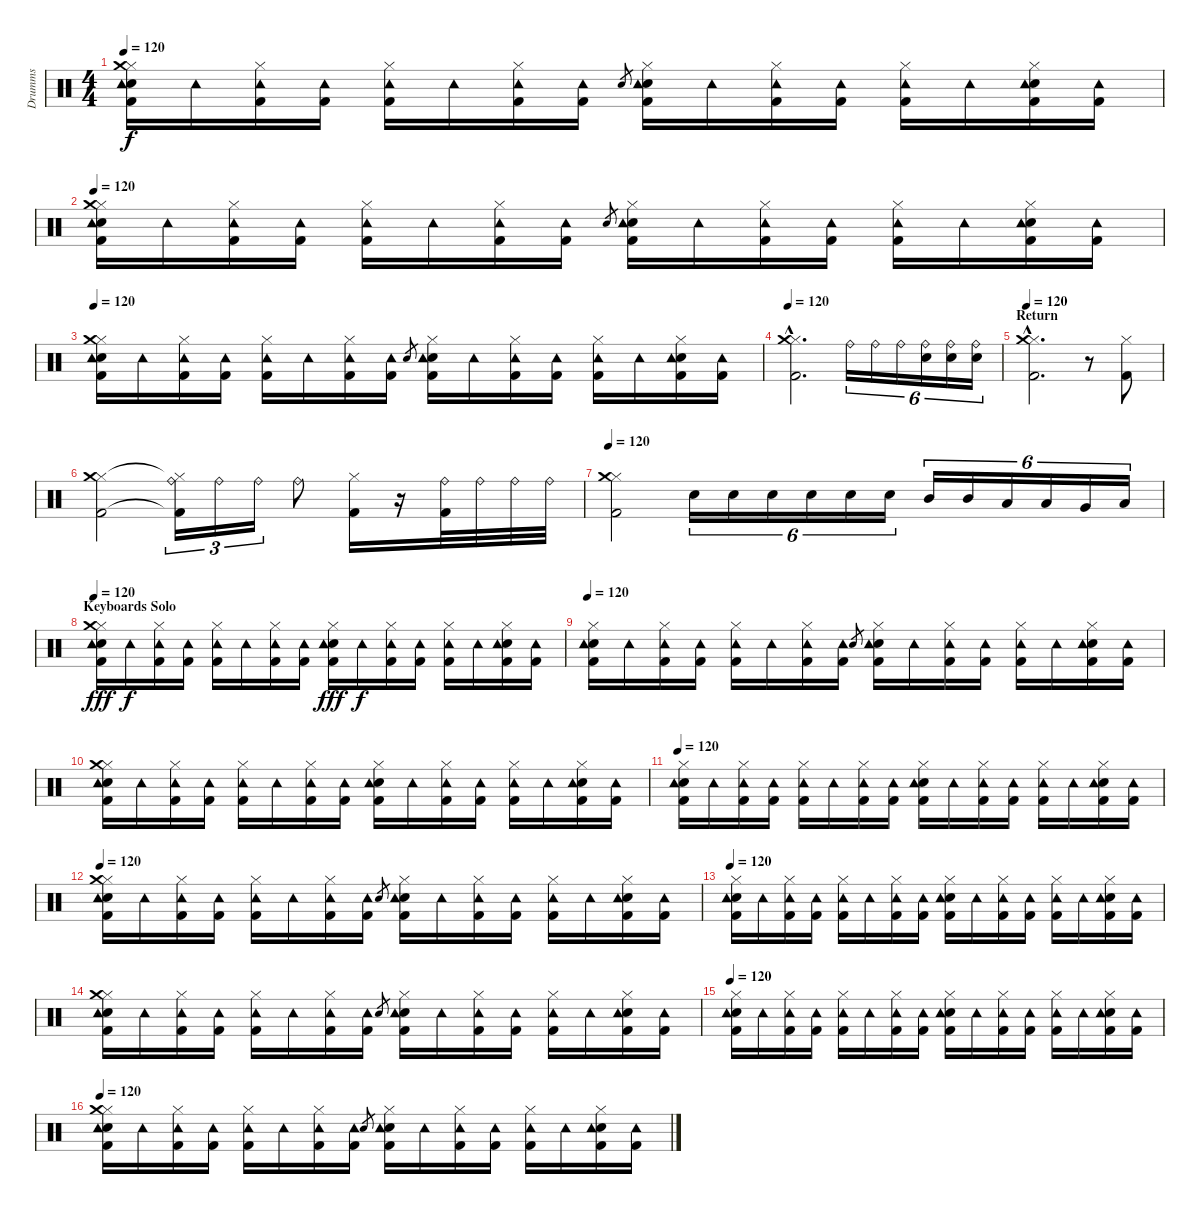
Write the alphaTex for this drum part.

\track ("Drumms" "Drumms") {instrument percussion}
\staff {score}
\articulation defaults
\ts (4 4)
\tempo 120
\clef neutral
\ks c
("Hi-Hat (closed)" "Snare (hit) 2" "Crash medium (hit)" "Kick (hit) 2" "Tambourine (hit)").16{dy f} "Tambourine (hit)".16 ("Hi-Hat (closed)" "Kick (hit) 2" "Tambourine (hit)").16 ("Kick (hit) 2" "Tambourine (hit)").16 ("Hi-Hat (closed)" "Kick (hit) 2" "Tambourine (hit)").16 "Tambourine (hit)".16 ("Hi-Hat (closed)" "Kick (hit) 2" "Tambourine (hit)").16 ("Kick (hit) 2" "Tambourine (hit)").16 "Snare (hit) 2".8{gr} ("Hi-Hat (closed)" "Snare (hit) 2" "Kick (hit) 2" "Tambourine (hit)").16 "Tambourine (hit)".16 ("Hi-Hat (closed)" "Kick (hit) 2" "Tambourine (hit)").16 ("Kick (hit) 2" "Tambourine (hit)").16 ("Hi-Hat (closed)" "Kick (hit) 2" "Tambourine (hit)").16 "Tambourine (hit)".16 ("Hi-Hat (closed)" "Snare (hit) 2" "Kick (hit) 2" "Tambourine (hit)").16 ("Kick (hit) 2" "Tambourine (hit)").16 |
\tempo 120
("Hi-Hat (closed)" "Snare (hit) 2" "Crash medium (hit)" "Kick (hit) 2" "Tambourine (hit)").16 "Tambourine (hit)".16 ("Hi-Hat (closed)" "Kick (hit) 2" "Tambourine (hit)").16 ("Kick (hit) 2" "Tambourine (hit)").16 ("Hi-Hat (closed)" "Kick (hit) 2" "Tambourine (hit)").16 "Tambourine (hit)".16 ("Hi-Hat (closed)" "Kick (hit) 2" "Tambourine (hit)").16 ("Kick (hit) 2" "Tambourine (hit)").16 "Snare (hit) 2".8{gr} ("Hi-Hat (closed)" "Snare (hit) 2" "Kick (hit) 2" "Tambourine (hit)").16 "Tambourine (hit)".16 ("Hi-Hat (closed)" "Kick (hit) 2" "Tambourine (hit)").16 ("Kick (hit) 2" "Tambourine (hit)").16 ("Hi-Hat (closed)" "Kick (hit) 2" "Tambourine (hit)").16 "Tambourine (hit)".16 ("Hi-Hat (closed)" "Snare (hit) 2" "Kick (hit) 2" "Tambourine (hit)").16 ("Kick (hit) 2" "Tambourine (hit)").16 |
\tempo 120
("Hi-Hat (closed)" "Snare (hit) 2" "Crash medium (hit)" "Kick (hit) 2" "Tambourine (hit)").16 "Tambourine (hit)".16 ("Hi-Hat (closed)" "Kick (hit) 2" "Tambourine (hit)").16 ("Kick (hit) 2" "Tambourine (hit)").16 ("Hi-Hat (closed)" "Kick (hit) 2" "Tambourine (hit)").16 "Tambourine (hit)".16 ("Hi-Hat (closed)" "Kick (hit) 2" "Tambourine (hit)").16 ("Kick (hit) 2" "Tambourine (hit)").16 "Snare (hit) 2".8{gr} ("Hi-Hat (closed)" "Snare (hit) 2" "Kick (hit) 2" "Tambourine (hit)").16 "Tambourine (hit)".16 ("Hi-Hat (closed)" "Kick (hit) 2" "Tambourine (hit)").16 ("Kick (hit) 2" "Tambourine (hit)").16 ("Hi-Hat (closed)" "Kick (hit) 2" "Tambourine (hit)").16 "Tambourine (hit)".16 ("Hi-Hat (closed)" "Snare (hit) 2" "Kick (hit) 2" "Tambourine (hit)").16 ("Kick (hit) 2" "Tambourine (hit)").16 |
\tempo 120
("Hi-Hat (closed)"{hac} "Kick (hit) 2"{hac} "Crash medium (hit)"{hac}).2{d} "Ride (bell)".16{tu (6 4)} "Ride (bell)".16{tu (6 4)} "Ride (bell)".16{tu (6 4)} ("Ride (bell)" "Snare (hit) 2").16{tu (6 4)} ("Ride (bell)" "Snare (hit) 2").16{tu (6 4)} ("Ride (bell)" "Snare (hit) 2").16{tu (6 4)} |
\section ("" "Return")
\tempo 120
("Hi-Hat (closed)"{hac} "Kick (hit) 2"{hac} "Crash medium (hit)"{hac}).2{d} r.8 ("Hi-Hat (closed)" "Kick (hit) 2").8 |
("Hi-Hat (closed)" "Kick (hit) 2" "Crash medium (hit)").2 ("Hi-Hat (closed)"{t} "Kick (hit) 2"{t} "Ride (bell)").16{tu (3 2)} "Ride (bell)".16{tu (3 2)} "Ride (bell)".16{tu (3 2)} "Ride (bell)".8 ("Hi-Hat (closed)" "Kick (hit) 2").16 r.16 ("Ride (bell)" "Kick (hit) 2").32 "Ride (bell)".32 "Ride (bell)".32 "Ride (bell)".32 |
\tempo 120
("Hi-Hat (closed)" "Kick (hit) 2" "Crash medium (hit)").2 "Snare (hit) 2".16{tu (6 4)} "Snare (hit) 2".16{tu (6 4)} "Snare (hit) 2".16{tu (6 4)} "Snare (hit) 2".16{tu (6 4)} "Snare (hit) 2".16{tu (6 4)} "Snare (hit) 2".16{tu (6 4)} "Mid Tom (hit)".16{tu (6 4)} "Mid Tom (hit)".16{tu (6 4)} "Low Tom (hit)".16{tu (6 4)} "Low Tom (hit)".16{tu (6 4)} "Very Low Tom (hit)".16{tu (6 4)} "Low Floor Tom (hit)".16{tu (6 4)} |
\section ("" "Keyboards Solo")
\tempo 120
("Hi-Hat (closed)" "Snare (hit) 2" "Crash medium (hit)" "Kick (hit) 2" "Tambourine (hit)").16{dy fff} "Tambourine (hit)".16{dy f} ("Hi-Hat (closed)" "Kick (hit) 2" "Tambourine (hit)").16 ("Kick (hit) 2" "Tambourine (hit)").16 ("Hi-Hat (closed)" "Kick (hit) 2" "Tambourine (hit)").16 "Tambourine (hit)".16 ("Hi-Hat (closed)" "Kick (hit) 2" "Tambourine (hit)").16 ("Kick (hit) 2" "Tambourine (hit)").16 ("Hi-Hat (closed)" "Snare (hit) 2" "Kick (hit) 2" "Tambourine (hit)").16{dy fff} "Tambourine (hit)".16{dy f} ("Hi-Hat (closed)" "Kick (hit) 2" "Tambourine (hit)").16 ("Kick (hit) 2" "Tambourine (hit)").16 ("Hi-Hat (closed)" "Kick (hit) 2" "Tambourine (hit)").16 "Tambourine (hit)".16 ("Hi-Hat (closed)" "Snare (hit) 2" "Kick (hit) 2" "Tambourine (hit)").16 ("Kick (hit) 2" "Tambourine (hit)").16 |
\tempo 120
("Hi-Hat (closed)" "Snare (hit) 2" "Kick (hit) 2" "Tambourine (hit)").16 "Tambourine (hit)".16 ("Hi-Hat (closed)" "Kick (hit) 2" "Tambourine (hit)").16 ("Kick (hit) 2" "Tambourine (hit)").16 ("Hi-Hat (closed)" "Kick (hit) 2" "Tambourine (hit)").16 "Tambourine (hit)".16 ("Hi-Hat (closed)" "Kick (hit) 2" "Tambourine (hit)").16 ("Kick (hit) 2" "Tambourine (hit)").16 "Snare (hit) 2".8{gr} ("Hi-Hat (closed)" "Snare (hit) 2" "Kick (hit) 2" "Tambourine (hit)").16 "Tambourine (hit)".16 ("Hi-Hat (closed)" "Kick (hit) 2" "Tambourine (hit)").16 ("Kick (hit) 2" "Tambourine (hit)").16 ("Hi-Hat (closed)" "Kick (hit) 2" "Tambourine (hit)").16 "Tambourine (hit)".16 ("Hi-Hat (closed)" "Snare (hit) 2" "Kick (hit) 2" "Tambourine (hit)").16 ("Kick (hit) 2" "Tambourine (hit)").16 |
("Hi-Hat (closed)" "Snare (hit) 2" "Crash medium (hit)" "Kick (hit) 2" "Tambourine (hit)").16 "Tambourine (hit)".16 ("Hi-Hat (closed)" "Kick (hit) 2" "Tambourine (hit)").16 ("Kick (hit) 2" "Tambourine (hit)").16 ("Hi-Hat (closed)" "Kick (hit) 2" "Tambourine (hit)").16 "Tambourine (hit)".16 ("Hi-Hat (closed)" "Kick (hit) 2" "Tambourine (hit)").16 ("Kick (hit) 2" "Tambourine (hit)").16 ("Hi-Hat (closed)" "Snare (hit) 2" "Kick (hit) 2" "Tambourine (hit)").16 "Tambourine (hit)".16 ("Hi-Hat (closed)" "Kick (hit) 2" "Tambourine (hit)").16 ("Kick (hit) 2" "Tambourine (hit)").16 ("Hi-Hat (closed)" "Kick (hit) 2" "Tambourine (hit)").16 "Tambourine (hit)".16 ("Hi-Hat (closed)" "Snare (hit) 2" "Kick (hit) 2" "Tambourine (hit)").16 ("Kick (hit) 2" "Tambourine (hit)").16 |
\tempo 120
("Hi-Hat (closed)" "Snare (hit) 2" "Kick (hit) 2" "Tambourine (hit)").16 "Tambourine (hit)".16 ("Hi-Hat (closed)" "Kick (hit) 2" "Tambourine (hit)").16 ("Kick (hit) 2" "Tambourine (hit)").16 ("Hi-Hat (closed)" "Kick (hit) 2" "Tambourine (hit)").16 "Tambourine (hit)".16 ("Hi-Hat (closed)" "Kick (hit) 2" "Tambourine (hit)").16 ("Kick (hit) 2" "Tambourine (hit)").16 ("Hi-Hat (closed)" "Snare (hit) 2" "Kick (hit) 2" "Tambourine (hit)").16 "Tambourine (hit)".16 ("Hi-Hat (closed)" "Kick (hit) 2" "Tambourine (hit)").16 ("Kick (hit) 2" "Tambourine (hit)").16 ("Hi-Hat (closed)" "Kick (hit) 2" "Tambourine (hit)").16 "Tambourine (hit)".16 ("Hi-Hat (closed)" "Snare (hit) 2" "Kick (hit) 2" "Tambourine (hit)").16 ("Kick (hit) 2" "Tambourine (hit)").16 |
\tempo 120
("Hi-Hat (closed)" "Snare (hit) 2" "Crash medium (hit)" "Kick (hit) 2" "Tambourine (hit)").16 "Tambourine (hit)".16 ("Hi-Hat (closed)" "Kick (hit) 2" "Tambourine (hit)").16 ("Kick (hit) 2" "Tambourine (hit)").16 ("Hi-Hat (closed)" "Kick (hit) 2" "Tambourine (hit)").16 "Tambourine (hit)".16 ("Hi-Hat (closed)" "Kick (hit) 2" "Tambourine (hit)").16 ("Kick (hit) 2" "Tambourine (hit)").16 "Snare (hit) 2".8{gr} ("Hi-Hat (closed)" "Snare (hit) 2" "Kick (hit) 2" "Tambourine (hit)").16 "Tambourine (hit)".16 ("Hi-Hat (closed)" "Kick (hit) 2" "Tambourine (hit)").16 ("Kick (hit) 2" "Tambourine (hit)").16 ("Hi-Hat (closed)" "Kick (hit) 2" "Tambourine (hit)").16 "Tambourine (hit)".16 ("Hi-Hat (closed)" "Snare (hit) 2" "Kick (hit) 2" "Tambourine (hit)").16 ("Kick (hit) 2" "Tambourine (hit)").16 |
\tempo 120
("Hi-Hat (closed)" "Snare (hit) 2" "Kick (hit) 2" "Tambourine (hit)").16 "Tambourine (hit)".16 ("Hi-Hat (closed)" "Kick (hit) 2" "Tambourine (hit)").16 ("Kick (hit) 2" "Tambourine (hit)").16 ("Hi-Hat (closed)" "Kick (hit) 2" "Tambourine (hit)").16 "Tambourine (hit)".16 ("Hi-Hat (closed)" "Kick (hit) 2" "Tambourine (hit)").16 ("Kick (hit) 2" "Tambourine (hit)").16 ("Hi-Hat (closed)" "Snare (hit) 2" "Kick (hit) 2" "Tambourine (hit)").16 "Tambourine (hit)".16 ("Hi-Hat (closed)" "Kick (hit) 2" "Tambourine (hit)").16 ("Kick (hit) 2" "Tambourine (hit)").16 ("Hi-Hat (closed)" "Kick (hit) 2" "Tambourine (hit)").16 "Tambourine (hit)".16 ("Hi-Hat (closed)" "Snare (hit) 2" "Kick (hit) 2" "Tambourine (hit)").16 ("Kick (hit) 2" "Tambourine (hit)").16 |
("Hi-Hat (closed)" "Snare (hit) 2" "Crash medium (hit)" "Kick (hit) 2" "Tambourine (hit)").16 "Tambourine (hit)".16 ("Hi-Hat (closed)" "Kick (hit) 2" "Tambourine (hit)").16 ("Kick (hit) 2" "Tambourine (hit)").16 ("Hi-Hat (closed)" "Kick (hit) 2" "Tambourine (hit)").16 "Tambourine (hit)".16 ("Hi-Hat (closed)" "Kick (hit) 2" "Tambourine (hit)").16 ("Kick (hit) 2" "Tambourine (hit)").16 "Snare (hit) 2".8{gr} ("Hi-Hat (closed)" "Snare (hit) 2" "Kick (hit) 2" "Tambourine (hit)").16 "Tambourine (hit)".16 ("Hi-Hat (closed)" "Kick (hit) 2" "Tambourine (hit)").16 ("Kick (hit) 2" "Tambourine (hit)").16 ("Hi-Hat (closed)" "Kick (hit) 2" "Tambourine (hit)").16 "Tambourine (hit)".16 ("Hi-Hat (closed)" "Snare (hit) 2" "Kick (hit) 2" "Tambourine (hit)").16 ("Kick (hit) 2" "Tambourine (hit)").16 |
\tempo 120
("Hi-Hat (closed)" "Snare (hit) 2" "Kick (hit) 2" "Tambourine (hit)").16 "Tambourine (hit)".16 ("Hi-Hat (closed)" "Kick (hit) 2" "Tambourine (hit)").16 ("Kick (hit) 2" "Tambourine (hit)").16 ("Hi-Hat (closed)" "Kick (hit) 2" "Tambourine (hit)").16 "Tambourine (hit)".16 ("Hi-Hat (closed)" "Kick (hit) 2" "Tambourine (hit)").16 ("Kick (hit) 2" "Tambourine (hit)").16 ("Hi-Hat (closed)" "Snare (hit) 2" "Kick (hit) 2" "Tambourine (hit)").16 "Tambourine (hit)".16 ("Hi-Hat (closed)" "Kick (hit) 2" "Tambourine (hit)").16 ("Kick (hit) 2" "Tambourine (hit)").16 ("Hi-Hat (closed)" "Kick (hit) 2" "Tambourine (hit)").16 "Tambourine (hit)".16 ("Hi-Hat (closed)" "Snare (hit) 2" "Kick (hit) 2" "Tambourine (hit)").16 ("Kick (hit) 2" "Tambourine (hit)").16 |
\tempo 120
("Hi-Hat (closed)" "Snare (hit) 2" "Crash medium (hit)" "Kick (hit) 2" "Tambourine (hit)").16 "Tambourine (hit)".16 ("Hi-Hat (closed)" "Kick (hit) 2" "Tambourine (hit)").16 ("Kick (hit) 2" "Tambourine (hit)").16 ("Hi-Hat (closed)" "Kick (hit) 2" "Tambourine (hit)").16 "Tambourine (hit)".16 ("Hi-Hat (closed)" "Kick (hit) 2" "Tambourine (hit)").16 ("Kick (hit) 2" "Tambourine (hit)").16 "Snare (hit) 2".8{gr} ("Hi-Hat (closed)" "Snare (hit) 2" "Kick (hit) 2" "Tambourine (hit)").16 "Tambourine (hit)".16 ("Hi-Hat (closed)" "Kick (hit) 2" "Tambourine (hit)").16 ("Kick (hit) 2" "Tambourine (hit)").16 ("Hi-Hat (closed)" "Kick (hit) 2" "Tambourine (hit)").16 "Tambourine (hit)".16 ("Hi-Hat (closed)" "Snare (hit) 2" "Kick (hit) 2" "Tambourine (hit)").16 ("Kick (hit) 2" "Tambourine (hit)").16
